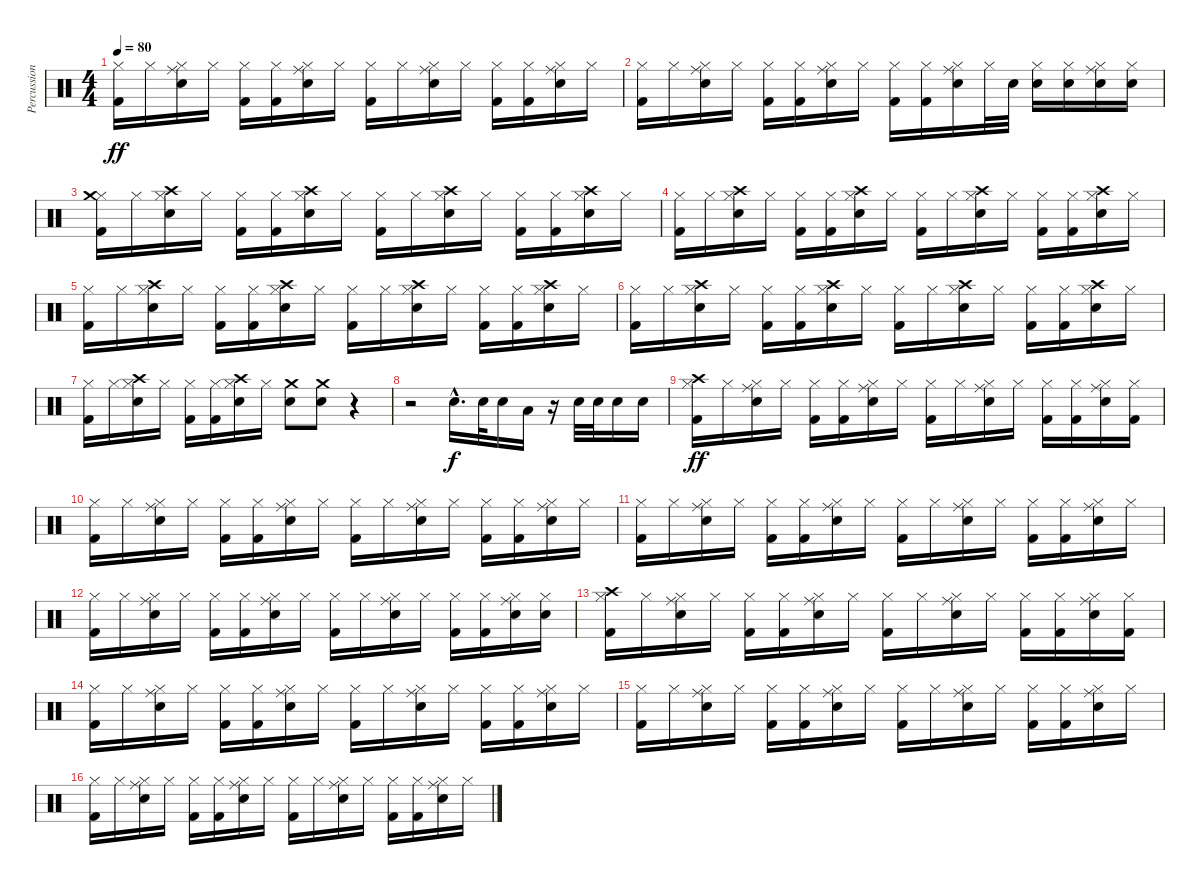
\track ("Percussion" "Percussion") {instrument percussion}
\staff {score}
\articulation defaults
\ts (4 4)
\tempo 80
\clef neutral
\ks c
("Kick (hit) 2" "Hi-Hat (closed)").16{dy ff} "Hi-Hat (closed)".16 ("Snare (hit) 2" "Hi-Hat (closed)" "Ride (middle)").16 "Hi-Hat (closed)".16 ("Kick (hit) 2" "Hi-Hat (closed)").16 ("Kick (hit) 2" "Hi-Hat (closed)").16 ("Snare (hit) 2" "Hi-Hat (closed)" "Ride (middle)").16 "Hi-Hat (closed)".16 ("Kick (hit) 2" "Hi-Hat (closed)").16 "Hi-Hat (closed)".16 ("Snare (hit) 2" "Hi-Hat (closed)" "Ride (middle)").16 "Hi-Hat (closed)".16 ("Kick (hit) 2" "Hi-Hat (closed)").16 ("Kick (hit) 2" "Hi-Hat (closed)").16 ("Snare (hit) 2" "Hi-Hat (closed)" "Ride (middle)").16 "Hi-Hat (closed)".16 |
("Kick (hit) 2" "Hi-Hat (closed)").16 "Hi-Hat (closed)".16 ("Snare (hit) 2" "Hi-Hat (closed)" "Ride (middle)").16 "Hi-Hat (closed)".16 ("Kick (hit) 2" "Hi-Hat (closed)").16 ("Kick (hit) 2" "Hi-Hat (closed)").16 ("Snare (hit) 2" "Hi-Hat (closed)" "Ride (middle)").16 "Hi-Hat (closed)".16 ("Kick (hit) 2" "Hi-Hat (closed)").16 ("Kick (hit) 2" "Hi-Hat (closed)").16 ("Snare (hit) 2" "Hi-Hat (closed)" "Ride (middle)").16 "Hi-Hat (closed)".32 "Snare (hit) 2".32 ("Snare (hit) 2" "Hi-Hat (closed)").16 ("Snare (hit) 2" "Hi-Hat (closed)").16 ("Snare (hit) 2" "Hi-Hat (closed)" "Ride (middle)").16 ("Snare (hit) 2" "Hi-Hat (closed)").16 |
("Kick (hit) 2" "Hi-Hat (closed)" "Crash medium (hit)").16 "Hi-Hat (closed)".16 ("Snare (hit) 2" "Hi-Hat (closed)" "Crash high (hit)").16 "Hi-Hat (closed)".16 ("Kick (hit) 2" "Hi-Hat (closed)").16 ("Kick (hit) 2" "Hi-Hat (closed)").16 ("Snare (hit) 2" "Hi-Hat (closed)" "Crash high (hit)").16 "Hi-Hat (closed)".16 ("Kick (hit) 2" "Hi-Hat (closed)").16 "Hi-Hat (closed)".16 ("Snare (hit) 2" "Hi-Hat (closed)" "Crash high (hit)").16 "Hi-Hat (closed)".16 ("Kick (hit) 2" "Hi-Hat (closed)").16 ("Kick (hit) 2" "Hi-Hat (closed)").16 ("Snare (hit) 2" "Hi-Hat (closed)" "Crash high (hit)").16 "Hi-Hat (closed)".16 |
("Kick (hit) 2" "Hi-Hat (closed)").16 "Hi-Hat (closed)".16 ("Snare (hit) 2" "Hi-Hat (closed)" "Crash high (hit)").16 "Hi-Hat (closed)".16 ("Kick (hit) 2" "Hi-Hat (closed)").16 ("Kick (hit) 2" "Hi-Hat (closed)").16 ("Snare (hit) 2" "Hi-Hat (closed)" "Crash high (hit)").16 "Hi-Hat (closed)".16 ("Kick (hit) 2" "Hi-Hat (closed)").16 "Hi-Hat (closed)".16 ("Snare (hit) 2" "Hi-Hat (closed)" "Crash high (hit)").16 "Hi-Hat (closed)".16 ("Kick (hit) 2" "Hi-Hat (closed)").16 ("Kick (hit) 2" "Hi-Hat (closed)").16 ("Snare (hit) 2" "Hi-Hat (closed)" "Crash high (hit)").16 "Hi-Hat (closed)".16 |
("Kick (hit) 2" "Hi-Hat (closed)").16 "Hi-Hat (closed)".16 ("Snare (hit) 2" "Hi-Hat (closed)" "Crash high (hit)").16 "Hi-Hat (closed)".16 ("Kick (hit) 2" "Hi-Hat (closed)").16 ("Kick (hit) 2" "Hi-Hat (closed)").16 ("Snare (hit) 2" "Hi-Hat (closed)" "Crash high (hit)").16 "Hi-Hat (closed)".16 ("Kick (hit) 2" "Hi-Hat (closed)").16 "Hi-Hat (closed)".16 ("Snare (hit) 2" "Hi-Hat (closed)" "Crash high (hit)").16 "Hi-Hat (closed)".16 ("Kick (hit) 2" "Hi-Hat (closed)").16 ("Kick (hit) 2" "Hi-Hat (closed)").16 ("Snare (hit) 2" "Hi-Hat (closed)" "Crash high (hit)").16 "Hi-Hat (closed)".16 |
("Kick (hit) 2" "Hi-Hat (closed)").16 "Hi-Hat (closed)".16 ("Snare (hit) 2" "Hi-Hat (closed)" "Crash high (hit)").16 "Hi-Hat (closed)".16 ("Kick (hit) 2" "Hi-Hat (closed)").16 ("Kick (hit) 2" "Hi-Hat (closed)").16 ("Snare (hit) 2" "Hi-Hat (closed)" "Crash high (hit)").16 "Hi-Hat (closed)".16 ("Kick (hit) 2" "Hi-Hat (closed)").16 "Hi-Hat (closed)".16 ("Snare (hit) 2" "Hi-Hat (closed)" "Crash high (hit)").16 "Hi-Hat (closed)".16 ("Kick (hit) 2" "Hi-Hat (closed)").16 ("Kick (hit) 2" "Hi-Hat (closed)").16 ("Snare (hit) 2" "Hi-Hat (closed)" "Crash high (hit)").16 "Hi-Hat (closed)".16 |
("Kick (hit) 2" "Hi-Hat (closed)").16 "Hi-Hat (closed)".16 ("Snare (hit) 2" "Hi-Hat (closed)" "Crash high (hit)").16 "Hi-Hat (closed)".16 ("Kick (hit) 2" "Hi-Hat (closed)").16 ("Kick (hit) 2" "Hi-Hat (closed)").16 ("Snare (hit) 2" "Hi-Hat (closed)" "Crash high (hit)").16 "Hi-Hat (closed)".16 ("Snare (hit) 2" "Crash medium (hit)").8 ("Snare (hit) 2" "Crash medium (hit)").8 r.4 |
r.2 "Snare (hit) 2"{hac}.16{d dy f} "Snare (hit) 2".32 "Snare (hit) 2".16 "Low Floor Tom (hit)".16 r.16 "Snare (hit) 2".32 "Snare (hit) 2".32 "Snare (hit) 2".16 "Snare (hit) 2".16 |
("Kick (hit) 2" "Hi-Hat (closed)" "Crash high (hit)").16{dy ff} "Hi-Hat (closed)".16 ("Snare (hit) 2" "Hi-Hat (closed)" "Ride (middle)").16 "Hi-Hat (closed)".16 ("Kick (hit) 2" "Hi-Hat (closed)").16 ("Kick (hit) 2" "Hi-Hat (closed)").16 ("Snare (hit) 2" "Hi-Hat (closed)" "Ride (middle)").16 "Hi-Hat (closed)".16 ("Kick (hit) 2" "Hi-Hat (closed)").16 "Hi-Hat (closed)".16 ("Snare (hit) 2" "Hi-Hat (closed)" "Ride (middle)").16 "Hi-Hat (closed)".16 ("Kick (hit) 2" "Hi-Hat (closed)").16 ("Kick (hit) 2" "Hi-Hat (closed)").16 ("Snare (hit) 2" "Hi-Hat (closed)" "Ride (middle)").16 ("Kick (hit) 2" "Hi-Hat (closed)").16 |
("Kick (hit) 2" "Hi-Hat (closed)").16 "Hi-Hat (closed)".16 ("Snare (hit) 2" "Hi-Hat (closed)" "Ride (middle)").16 "Hi-Hat (closed)".16 ("Kick (hit) 2" "Hi-Hat (closed)").16 ("Kick (hit) 2" "Hi-Hat (closed)").16 ("Snare (hit) 2" "Hi-Hat (closed)" "Ride (middle)").16 "Hi-Hat (closed)".16 ("Kick (hit) 2" "Hi-Hat (closed)").16 "Hi-Hat (closed)".16 ("Snare (hit) 2" "Hi-Hat (closed)" "Ride (middle)").16 "Hi-Hat (closed)".16 ("Kick (hit) 2" "Hi-Hat (closed)").16 ("Kick (hit) 2" "Hi-Hat (closed)").16 ("Snare (hit) 2" "Hi-Hat (closed)" "Ride (middle)").16 "Hi-Hat (closed)".16 |
("Kick (hit) 2" "Hi-Hat (closed)").16 "Hi-Hat (closed)".16 ("Snare (hit) 2" "Hi-Hat (closed)" "Ride (middle)").16 "Hi-Hat (closed)".16 ("Kick (hit) 2" "Hi-Hat (closed)").16 ("Kick (hit) 2" "Hi-Hat (closed)").16 ("Snare (hit) 2" "Hi-Hat (closed)" "Ride (middle)").16 "Hi-Hat (closed)".16 ("Kick (hit) 2" "Hi-Hat (closed)").16 "Hi-Hat (closed)".16 ("Snare (hit) 2" "Hi-Hat (closed)" "Ride (middle)").16 "Hi-Hat (closed)".16 ("Kick (hit) 2" "Hi-Hat (closed)").16 ("Kick (hit) 2" "Hi-Hat (closed)").16 ("Snare (hit) 2" "Hi-Hat (closed)" "Ride (middle)").16 "Hi-Hat (closed)".16 |
("Kick (hit) 2" "Hi-Hat (closed)").16 "Hi-Hat (closed)".16 ("Snare (hit) 2" "Hi-Hat (closed)" "Ride (middle)").16 "Hi-Hat (closed)".16 ("Kick (hit) 2" "Hi-Hat (closed)").16 ("Kick (hit) 2" "Hi-Hat (closed)").16 ("Snare (hit) 2" "Hi-Hat (closed)" "Ride (middle)").16 "Hi-Hat (closed)".16 ("Kick (hit) 2" "Hi-Hat (closed)").16 "Hi-Hat (closed)".16 ("Snare (hit) 2" "Hi-Hat (closed)" "Ride (middle)").16 "Hi-Hat (closed)".16 ("Kick (hit) 2" "Hi-Hat (closed)").16 ("Kick (hit) 2" "Hi-Hat (closed)").16 ("Snare (hit) 2" "Hi-Hat (closed)" "Ride (middle)").16 ("Snare (hit) 2" "Hi-Hat (closed)").16 |
("Kick (hit) 2" "Hi-Hat (closed)" "Crash high (hit)").16 "Hi-Hat (closed)".16 ("Snare (hit) 2" "Hi-Hat (closed)" "Ride (middle)").16 "Hi-Hat (closed)".16 ("Kick (hit) 2" "Hi-Hat (closed)").16 ("Kick (hit) 2" "Hi-Hat (closed)").16 ("Snare (hit) 2" "Hi-Hat (closed)" "Ride (middle)").16 "Hi-Hat (closed)".16 ("Kick (hit) 2" "Hi-Hat (closed)").16 "Hi-Hat (closed)".16 ("Snare (hit) 2" "Hi-Hat (closed)" "Ride (middle)").16 "Hi-Hat (closed)".16 ("Kick (hit) 2" "Hi-Hat (closed)").16 ("Kick (hit) 2" "Hi-Hat (closed)").16 ("Snare (hit) 2" "Hi-Hat (closed)" "Ride (middle)").16 ("Kick (hit) 2" "Hi-Hat (closed)").16 |
("Kick (hit) 2" "Hi-Hat (closed)").16 "Hi-Hat (closed)".16 ("Snare (hit) 2" "Hi-Hat (closed)" "Ride (middle)").16 "Hi-Hat (closed)".16 ("Kick (hit) 2" "Hi-Hat (closed)").16 ("Kick (hit) 2" "Hi-Hat (closed)").16 ("Snare (hit) 2" "Hi-Hat (closed)" "Ride (middle)").16 "Hi-Hat (closed)".16 ("Kick (hit) 2" "Hi-Hat (closed)").16 "Hi-Hat (closed)".16 ("Snare (hit) 2" "Hi-Hat (closed)" "Ride (middle)").16 "Hi-Hat (closed)".16 ("Kick (hit) 2" "Hi-Hat (closed)").16 ("Kick (hit) 2" "Hi-Hat (closed)").16 ("Snare (hit) 2" "Hi-Hat (closed)" "Ride (middle)").16 "Hi-Hat (closed)".16 |
("Kick (hit) 2" "Hi-Hat (closed)").16 "Hi-Hat (closed)".16 ("Snare (hit) 2" "Hi-Hat (closed)" "Ride (middle)").16 "Hi-Hat (closed)".16 ("Kick (hit) 2" "Hi-Hat (closed)").16 ("Kick (hit) 2" "Hi-Hat (closed)").16 ("Snare (hit) 2" "Hi-Hat (closed)" "Ride (middle)").16 "Hi-Hat (closed)".16 ("Kick (hit) 2" "Hi-Hat (closed)").16 "Hi-Hat (closed)".16 ("Snare (hit) 2" "Hi-Hat (closed)" "Ride (middle)").16 "Hi-Hat (closed)".16 ("Kick (hit) 2" "Hi-Hat (closed)").16 ("Kick (hit) 2" "Hi-Hat (closed)").16 ("Snare (hit) 2" "Hi-Hat (closed)" "Ride (middle)").16 "Hi-Hat (closed)".16 |
("Kick (hit) 2" "Hi-Hat (closed)").16 "Hi-Hat (closed)".16 ("Snare (hit) 2" "Hi-Hat (closed)" "Ride (middle)").16 "Hi-Hat (closed)".16 ("Kick (hit) 2" "Hi-Hat (closed)").16 ("Kick (hit) 2" "Hi-Hat (closed)").16 ("Snare (hit) 2" "Hi-Hat (closed)" "Ride (middle)").16 "Hi-Hat (closed)".16 ("Kick (hit) 2" "Hi-Hat (closed)").16 "Hi-Hat (closed)".16 ("Snare (hit) 2" "Hi-Hat (closed)" "Ride (middle)").16 "Hi-Hat (closed)".16 ("Kick (hit) 2" "Hi-Hat (closed)").16 ("Kick (hit) 2" "Hi-Hat (closed)").16 ("Snare (hit) 2" "Hi-Hat (closed)" "Ride (middle)").16 "Hi-Hat (closed)".16
